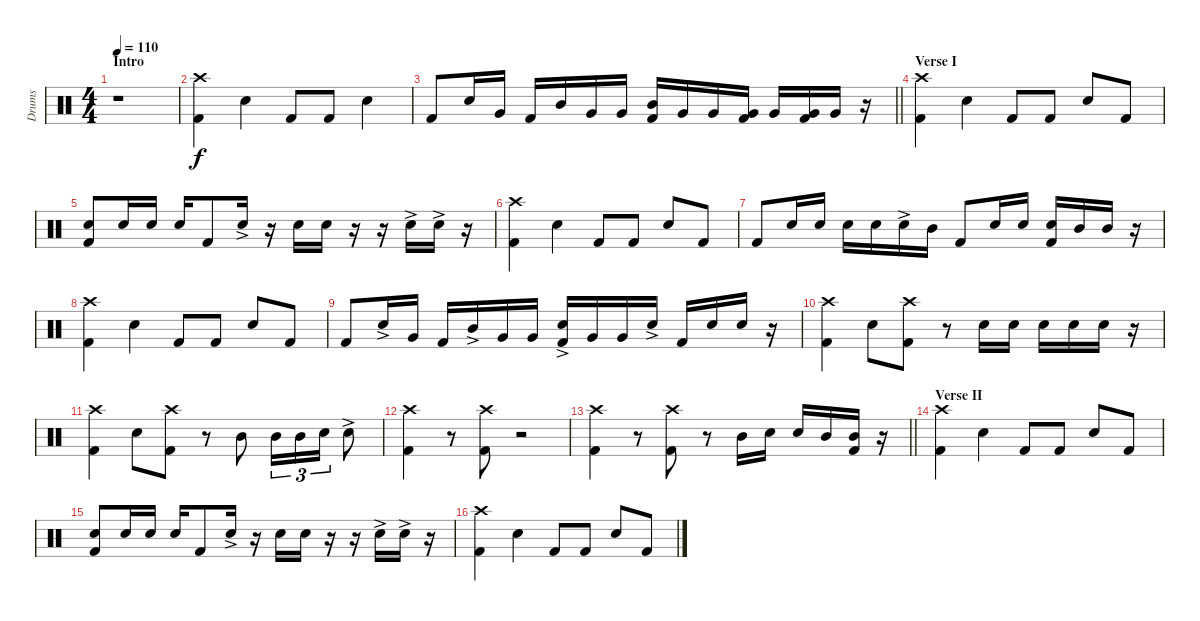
\track ("Drums" "Drums") {instrument percussion}
\staff {score}
\articulation defaults
\ts (4 4)
\section ("" "Intro")
\tempo 110
\clef neutral
\ks c
r.1{dy f} |
("Crash high (hit)" "Kick (hit) 2").4 "Snare (hit) 2".4 "Kick (hit) 2".8 "Kick (hit) 2".8 "Snare (hit) 2".4 |
\barLineRight lightlight "Kick (hit) 2".8 "Snare (hit) 2".16 "Very Low Tom (hit)".16 "Kick (hit) 2".16 "Mid Tom (hit)".16 "Very Low Tom (hit)".16 "Very Low Tom (hit)".16
("Mid Tom (hit)" "Kick (hit) 2").16 "Very Low Tom (hit)".16 "Very Low Tom (hit)".16 ("Very Low Tom (hit)" "Kick (hit) 2").16 "Very Low Tom (hit)".16 ("Very Low Tom (hit)" "Kick (hit) 2").16 "Very Low Tom (hit)".16 r.16 |
\section ("" "Verse I")
("Crash high (hit)" "Kick (hit) 2").4 "Snare (hit) 2".4 "Kick (hit) 2".8 "Kick (hit) 2".8 "Snare (hit) 2".8 "Kick (hit) 2".8 |
("Snare (hit) 2" "Kick (hit) 2").8 "Snare (hit) 2".16 "Snare (hit) 2".16 "Snare (hit) 2".16 "Kick (hit) 2".8 "Snare (hit) 2"{ac}.16 r.16 "Snare (hit) 2".16 "Snare (hit) 2".16 r.16 r.16 "Snare (hit) 2"{ac}.16 "Snare (hit) 2"{ac}.16 r.16 |
("Crash high (hit)" "Kick (hit) 2").4 "Snare (hit) 2".4 "Kick (hit) 2".8 "Kick (hit) 2".8 "Snare (hit) 2".8 "Kick (hit) 2".8 |
"Kick (hit) 2".8 "Snare (hit) 2".16 "Snare (hit) 2".16 "Snare (hit) 2".16 "Snare (hit) 2".16 "Snare (hit) 2"{ac}.16 "Mid Tom (hit)".16 "Kick (hit) 2".8 "Snare (hit) 2".16 "Snare (hit) 2".16 ("Snare (hit) 2" "Kick (hit) 2").16 "Mid Tom (hit)".16 "Mid Tom (hit)".16 r.16 |
("Crash high (hit)" "Kick (hit) 2").4 "Snare (hit) 2".4 "Kick (hit) 2".8 "Kick (hit) 2".8 "Snare (hit) 2".8 "Kick (hit) 2".8 |
"Kick (hit) 2".8 "Snare (hit) 2"{ac}.16 "Very Low Tom (hit)".16 "Kick (hit) 2".16 "Mid Tom (hit)"{ac}.16 "Very Low Tom (hit)".16 "Very Low Tom (hit)".16 ("Snare (hit) 2"{ac} "Kick (hit) 2").16 "Very Low Tom (hit)".16 "Very Low Tom (hit)".16 "Snare (hit) 2"{ac}.16 "Kick (hit) 2".16 "Snare (hit) 2".16 "Snare (hit) 2".16 r.16 |
("Crash high (hit)" "Kick (hit) 2").4 "Snare (hit) 2".8 ("Crash high (hit)" "Kick (hit) 2").8 r.8 "Snare (hit) 2".16 "Snare (hit) 2".16 "Snare (hit) 2".16 "Snare (hit) 2".16 "Snare (hit) 2".16 r.16 |
("Crash high (hit)" "Kick (hit) 2").4 "Snare (hit) 2".8 ("Crash high (hit)" "Kick (hit) 2").8 r.8 "Mid Tom (hit)".8 "Mid Tom (hit)".16{tu (3 2)} "Mid Tom (hit)".16{tu (3 2)} "Snare (hit) 2".16{tu (3 2)} "Snare (hit) 2"{ac}.8 |
("Crash high (hit)" "Kick (hit) 2").4 r.8 ("Crash high (hit)" "Kick (hit) 2").8 r.2 |
\barLineRight lightlight
("Crash high (hit)" "Kick (hit) 2").4 r.8 ("Crash high (hit)" "Kick (hit) 2").8 r.8 "Mid Tom (hit)".16 "Snare (hit) 2".16 "Snare (hit) 2".16 "Mid Tom (hit)".16 ("Mid Tom (hit)" "Kick (hit) 2").16 r.16 |
\section ("" "Verse II")
("Crash high (hit)" "Kick (hit) 2").4 "Snare (hit) 2".4 "Kick (hit) 2".8 "Kick (hit) 2".8 "Snare (hit) 2".8 "Kick (hit) 2".8 |
("Snare (hit) 2" "Kick (hit) 2").8 "Snare (hit) 2".16 "Snare (hit) 2".16 "Snare (hit) 2".16 "Kick (hit) 2".8 "Snare (hit) 2"{ac}.16 r.16 "Snare (hit) 2".16 "Snare (hit) 2".16 r.16 r.16 "Snare (hit) 2"{ac}.16 "Snare (hit) 2"{ac}.16 r.16 |
("Crash high (hit)" "Kick (hit) 2").4 "Snare (hit) 2".4 "Kick (hit) 2".8 "Kick (hit) 2".8 "Snare (hit) 2".8 "Kick (hit) 2".8
